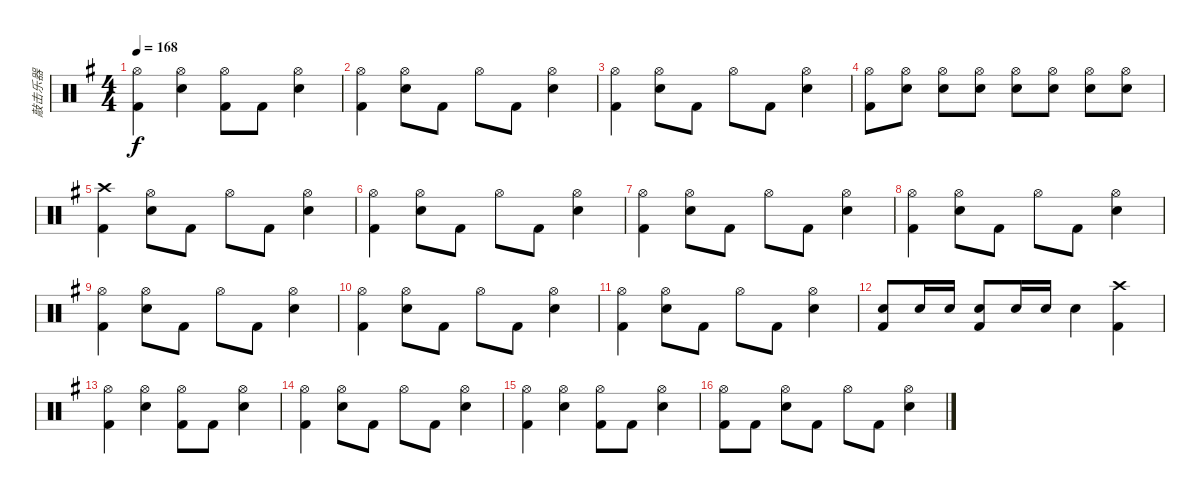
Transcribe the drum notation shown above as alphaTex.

\track ("敲击乐器" "敲击乐器") {instrument percussion}
\staff {score}
\articulation defaults
\ts (4 4)
\tempo 168
\clef neutral
\ks g
("Hi-Hat (open)" "Kick (hit) 2").4{dy f} ("Hi-Hat (open)" "Snare (hit) 2").4 ("Hi-Hat (open)" "Kick (hit) 2").8 "Kick (hit) 2".8 ("Hi-Hat (open)" "Snare (hit) 2").4 |
("Hi-Hat (open)" "Kick (hit) 2").4 ("Hi-Hat (open)" "Snare (hit) 2").8 "Kick (hit) 2".8 "Hi-Hat (open)".8 "Kick (hit) 2".8 ("Hi-Hat (open)" "Snare (hit) 2").4 |
("Hi-Hat (open)" "Kick (hit) 2").4 ("Hi-Hat (open)" "Snare (hit) 2").8 "Kick (hit) 2".8 "Hi-Hat (open)".8 "Kick (hit) 2".8 ("Hi-Hat (open)" "Snare (hit) 2").4 |
("Hi-Hat (open)" "Kick (hit) 2").8 ("Hi-Hat (open)" "Snare (hit) 2").8 ("Hi-Hat (open)" "Snare (hit) 2").8 ("Hi-Hat (open)" "Snare (hit) 2").8 ("Hi-Hat (open)" "Snare (hit) 2").8 ("Hi-Hat (open)" "Snare (hit) 2").8 ("Hi-Hat (open)" "Snare (hit) 2").8 ("Hi-Hat (open)" "Snare (hit) 2").8 |
("Crash high (hit)" "Kick (hit) 2").4 ("Hi-Hat (open)" "Snare (hit) 2").8 "Kick (hit) 2".8 "Hi-Hat (open)".8 "Kick (hit) 2".8 ("Hi-Hat (open)" "Snare (hit) 2").4 |
("Hi-Hat (open)" "Kick (hit) 2").4 ("Hi-Hat (open)" "Snare (hit) 2").8 "Kick (hit) 2".8 "Hi-Hat (open)".8 "Kick (hit) 2".8 ("Hi-Hat (open)" "Snare (hit) 2").4 |
("Hi-Hat (open)" "Kick (hit) 2").4 ("Hi-Hat (open)" "Snare (hit) 2").8 "Kick (hit) 2".8 "Hi-Hat (open)".8 "Kick (hit) 2".8 ("Hi-Hat (open)" "Snare (hit) 2").4 |
("Hi-Hat (open)" "Kick (hit) 2").4 ("Hi-Hat (open)" "Snare (hit) 2").8 "Kick (hit) 2".8 "Hi-Hat (open)".8 "Kick (hit) 2".8 ("Hi-Hat (open)" "Snare (hit) 2").4 |
("Hi-Hat (open)" "Kick (hit) 2").4 ("Hi-Hat (open)" "Snare (hit) 2").8 "Kick (hit) 2".8 "Hi-Hat (open)".8 "Kick (hit) 2".8 ("Hi-Hat (open)" "Snare (hit) 2").4 |
("Hi-Hat (open)" "Kick (hit) 2").4 ("Hi-Hat (open)" "Snare (hit) 2").8 "Kick (hit) 2".8 "Hi-Hat (open)".8 "Kick (hit) 2".8 ("Hi-Hat (open)" "Snare (hit) 2").4 |
("Hi-Hat (open)" "Kick (hit) 2").4 ("Hi-Hat (open)" "Snare (hit) 2").8 "Kick (hit) 2".8 "Hi-Hat (open)".8 "Kick (hit) 2".8 ("Hi-Hat (open)" "Snare (hit) 2").4 |
("Snare (hit) 2" "Kick (hit) 2").8 "Snare (hit) 2".16 "Snare (hit) 2".16 ("Snare (hit) 2" "Kick (hit) 2").8 "Snare (hit) 2".16 "Snare (hit) 2".16 "Snare (hit) 2".4 ("Crash high (hit)" "Kick (hit) 2").4 |
("Hi-Hat (open)" "Kick (hit) 2").4 ("Hi-Hat (open)" "Snare (hit) 2").4 ("Hi-Hat (open)" "Kick (hit) 2").8 "Kick (hit) 2".8 ("Hi-Hat (open)" "Snare (hit) 2").4 |
("Hi-Hat (open)" "Kick (hit) 2").4 ("Hi-Hat (open)" "Snare (hit) 2").8 "Kick (hit) 2".8 "Hi-Hat (open)".8 "Kick (hit) 2".8 ("Hi-Hat (open)" "Snare (hit) 2").4 |
("Hi-Hat (open)" "Kick (hit) 2").4 ("Hi-Hat (open)" "Snare (hit) 2").4 ("Hi-Hat (open)" "Kick (hit) 2").8 "Kick (hit) 2".8 ("Hi-Hat (open)" "Snare (hit) 2").4 |
("Hi-Hat (open)" "Kick (hit) 2").8 "Kick (hit) 2".8 ("Hi-Hat (open)" "Snare (hit) 2").8 "Kick (hit) 2".8 "Hi-Hat (open)".8 "Kick (hit) 2".8 ("Hi-Hat (open)" "Snare (hit) 2").4
